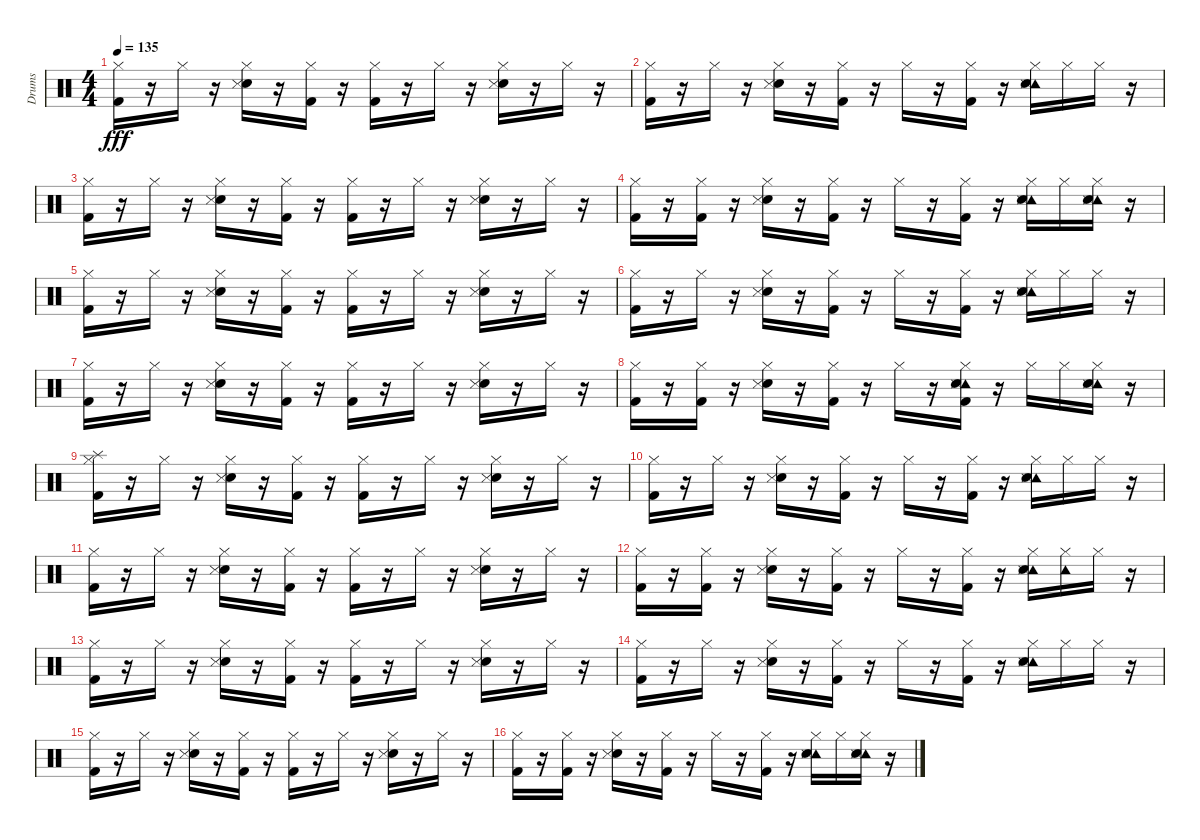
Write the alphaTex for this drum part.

\track ("Drums" "Drums") {instrument percussion}
\staff {score}
\articulation defaults
\ts (4 4)
\tempo 135
\clef neutral
\ks c
("Kick (hit) 2" "Hi-Hat (closed)").16{dy fff} r.16 "Hi-Hat (closed)".16 r.16 ("Electric Snare (hit)" "Snare (side stick) 3" "Hi-Hat (closed)").16 r.16 ("Kick (hit) 2" "Hi-Hat (closed)").16 r.16 ("Kick (hit) 2" "Hi-Hat (closed)").16 r.16 "Hi-Hat (closed)".16 r.16 ("Electric Snare (hit)" "Snare (side stick) 3" "Hi-Hat (closed)").16 r.16 "Hi-Hat (closed)".16 r.16 |
("Kick (hit) 2" "Hi-Hat (closed)").16 r.16 "Hi-Hat (closed)".16 r.16 ("Electric Snare (hit)" "Snare (side stick) 3" "Hi-Hat (closed)").16 r.16 ("Kick (hit) 2" "Hi-Hat (closed)").16 r.16 "Hi-Hat (closed)".16 r.16 ("Kick (hit) 2" "Hi-Hat (closed)").16 r.16 ("Tambourine (hit)" "Electric Snare (hit)" "Snare (side stick) 3" "Hi-Hat (closed)").16 "Hi-Hat (closed)".16 "Hi-Hat (closed)".16 r.16 |
("Kick (hit) 2" "Hi-Hat (closed)").16 r.16 "Hi-Hat (closed)".16 r.16 ("Electric Snare (hit)" "Snare (side stick) 3" "Hi-Hat (closed)").16 r.16 ("Kick (hit) 2" "Hi-Hat (closed)").16 r.16 ("Kick (hit) 2" "Hi-Hat (closed)").16 r.16 "Hi-Hat (closed)".16 r.16 ("Electric Snare (hit)" "Snare (side stick) 3" "Hi-Hat (closed)").16 r.16 "Hi-Hat (closed)".16 r.16 |
("Hi-Hat (closed)" "Kick (hit) 2").16 r.16 ("Kick (hit) 2" "Hi-Hat (closed)").16 r.16 ("Electric Snare (hit)" "Hi-Hat (closed)" "Snare (side stick) 3").16 r.16 ("Hi-Hat (closed)" "Kick (hit) 2").16 r.16 "Hi-Hat (closed)".16 r.16 ("Hi-Hat (closed)" "Kick (hit) 2").16 r.16 ("Tambourine (hit)" "Electric Snare (hit)" "Hi-Hat (closed)" "Snare (side stick) 3").16 "Hi-Hat (closed)".16 ("Tambourine (hit)" "Snare (side stick) 3" "Electric Snare (hit)" "Hi-Hat (closed)").16 r.16 |
("Kick (hit) 2" "Hi-Hat (closed)").16 r.16 "Hi-Hat (closed)".16 r.16 ("Electric Snare (hit)" "Snare (side stick) 3" "Hi-Hat (closed)").16 r.16 ("Kick (hit) 2" "Hi-Hat (closed)").16 r.16 ("Kick (hit) 2" "Hi-Hat (closed)").16 r.16 "Hi-Hat (closed)".16 r.16 ("Electric Snare (hit)" "Snare (side stick) 3" "Hi-Hat (closed)").16 r.16 "Hi-Hat (closed)".16 r.16 |
("Kick (hit) 2" "Hi-Hat (closed)").16 r.16 "Hi-Hat (closed)".16 r.16 ("Electric Snare (hit)" "Snare (side stick) 3" "Hi-Hat (closed)").16 r.16 ("Kick (hit) 2" "Hi-Hat (closed)").16 r.16 "Hi-Hat (closed)".16 r.16 ("Kick (hit) 2" "Hi-Hat (closed)").16 r.16 ("Tambourine (hit)" "Electric Snare (hit)" "Snare (side stick) 3" "Hi-Hat (closed)").16 "Hi-Hat (closed)".16 "Hi-Hat (closed)".16 r.16 |
("Kick (hit) 2" "Hi-Hat (closed)").16 r.16 "Hi-Hat (closed)".16 r.16 ("Electric Snare (hit)" "Snare (side stick) 3" "Hi-Hat (closed)").16 r.16 ("Kick (hit) 2" "Hi-Hat (closed)").16 r.16 ("Kick (hit) 2" "Hi-Hat (closed)").16 r.16 "Hi-Hat (closed)".16 r.16 ("Electric Snare (hit)" "Snare (side stick) 3" "Hi-Hat (closed)").16 r.16 "Hi-Hat (closed)".16 r.16 |
("Hi-Hat (closed)" "Kick (hit) 2").16 r.16 ("Kick (hit) 2" "Hi-Hat (closed)").16 r.16 ("Electric Snare (hit)" "Hi-Hat (closed)" "Snare (side stick) 3").16 r.16 ("Hi-Hat (closed)" "Kick (hit) 2").16 r.16 "Hi-Hat (closed)".16 r.16 ("Tambourine (hit)" "Snare (side stick) 3" "Electric Snare (hit)" "Hi-Hat (closed)" "Kick (hit) 2").16 r.16 "Hi-Hat (closed)".16 "Hi-Hat (closed)".16 ("Tambourine (hit)" "Snare (side stick) 3" "Electric Snare (hit)" "Hi-Hat (closed)").16 r.16 |
("Splash (hit)" "Kick (hit) 2" "Hi-Hat (closed)").16 r.16 "Hi-Hat (closed)".16 r.16 ("Electric Snare (hit)" "Snare (side stick) 3" "Hi-Hat (closed)").16 r.16 ("Kick (hit) 2" "Hi-Hat (closed)").16 r.16 ("Kick (hit) 2" "Hi-Hat (closed)").16 r.16 "Hi-Hat (closed)".16 r.16 ("Electric Snare (hit)" "Snare (side stick) 3" "Hi-Hat (closed)").16 r.16 "Hi-Hat (closed)".16 r.16 |
("Kick (hit) 2" "Hi-Hat (closed)").16 r.16 "Hi-Hat (closed)".16 r.16 ("Electric Snare (hit)" "Snare (side stick) 3" "Hi-Hat (closed)").16 r.16 ("Kick (hit) 2" "Hi-Hat (closed)").16 r.16 "Hi-Hat (closed)".16 r.16 ("Kick (hit) 2" "Hi-Hat (closed)").16 r.16 ("Tambourine (hit)" "Electric Snare (hit)" "Snare (side stick) 3" "Hi-Hat (closed)").16 "Hi-Hat (closed)".16 "Hi-Hat (closed)".16 r.16 |
("Kick (hit) 2" "Hi-Hat (closed)").16 r.16 "Hi-Hat (closed)".16 r.16 ("Electric Snare (hit)" "Snare (side stick) 3" "Hi-Hat (closed)").16 r.16 ("Kick (hit) 2" "Hi-Hat (closed)").16 r.16 ("Kick (hit) 2" "Hi-Hat (closed)").16 r.16 "Hi-Hat (closed)".16 r.16 ("Electric Snare (hit)" "Snare (side stick) 3" "Hi-Hat (closed)").16 r.16 "Hi-Hat (closed)".16 r.16 |
("Hi-Hat (closed)" "Kick (hit) 2").16 r.16 ("Kick (hit) 2" "Hi-Hat (closed)").16 r.16 ("Electric Snare (hit)" "Hi-Hat (closed)" "Snare (side stick) 3").16 r.16 ("Hi-Hat (closed)" "Kick (hit) 2").16 r.16 "Hi-Hat (closed)".16 r.16 ("Hi-Hat (closed)" "Kick (hit) 2").16 r.16 ("Tambourine (hit)" "Electric Snare (hit)" "Hi-Hat (closed)" "Snare (side stick) 3").16 ("Tambourine (hit)" "Hi-Hat (closed)").16 "Hi-Hat (closed)".16 r.16 |
("Kick (hit) 2" "Hi-Hat (closed)").16 r.16 "Hi-Hat (closed)".16 r.16 ("Electric Snare (hit)" "Snare (side stick) 3" "Hi-Hat (closed)").16 r.16 ("Kick (hit) 2" "Hi-Hat (closed)").16 r.16 ("Kick (hit) 2" "Hi-Hat (closed)").16 r.16 "Hi-Hat (closed)".16 r.16 ("Electric Snare (hit)" "Snare (side stick) 3" "Hi-Hat (closed)").16 r.16 "Hi-Hat (closed)".16 r.16 |
("Kick (hit) 2" "Hi-Hat (closed)").16 r.16 "Hi-Hat (closed)".16 r.16 ("Electric Snare (hit)" "Snare (side stick) 3" "Hi-Hat (closed)").16 r.16 ("Kick (hit) 2" "Hi-Hat (closed)").16 r.16 "Hi-Hat (closed)".16 r.16 ("Kick (hit) 2" "Hi-Hat (closed)").16 r.16 ("Tambourine (hit)" "Electric Snare (hit)" "Snare (side stick) 3" "Hi-Hat (closed)").16 "Hi-Hat (closed)".16 "Hi-Hat (closed)".16 r.16 |
("Kick (hit) 2" "Hi-Hat (closed)").16 r.16 "Hi-Hat (closed)".16 r.16 ("Electric Snare (hit)" "Snare (side stick) 3" "Hi-Hat (closed)").16 r.16 ("Kick (hit) 2" "Hi-Hat (closed)").16 r.16 ("Kick (hit) 2" "Hi-Hat (closed)").16 r.16 "Hi-Hat (closed)".16 r.16 ("Electric Snare (hit)" "Snare (side stick) 3" "Hi-Hat (closed)").16 r.16 "Hi-Hat (closed)".16 r.16 |
("Hi-Hat (closed)" "Kick (hit) 2").16 r.16 ("Kick (hit) 2" "Hi-Hat (closed)").16 r.16 ("Electric Snare (hit)" "Hi-Hat (closed)" "Snare (side stick) 3").16 r.16 ("Hi-Hat (closed)" "Kick (hit) 2").16 r.16 "Hi-Hat (closed)".16 r.16 ("Hi-Hat (closed)" "Kick (hit) 2").16 r.16 ("Tambourine (hit)" "Electric Snare (hit)" "Hi-Hat (closed)" "Snare (side stick) 3").16 "Hi-Hat (closed)".16 ("Tambourine (hit)" "Snare (side stick) 3" "Electric Snare (hit)" "Hi-Hat (closed)").16 r.16
